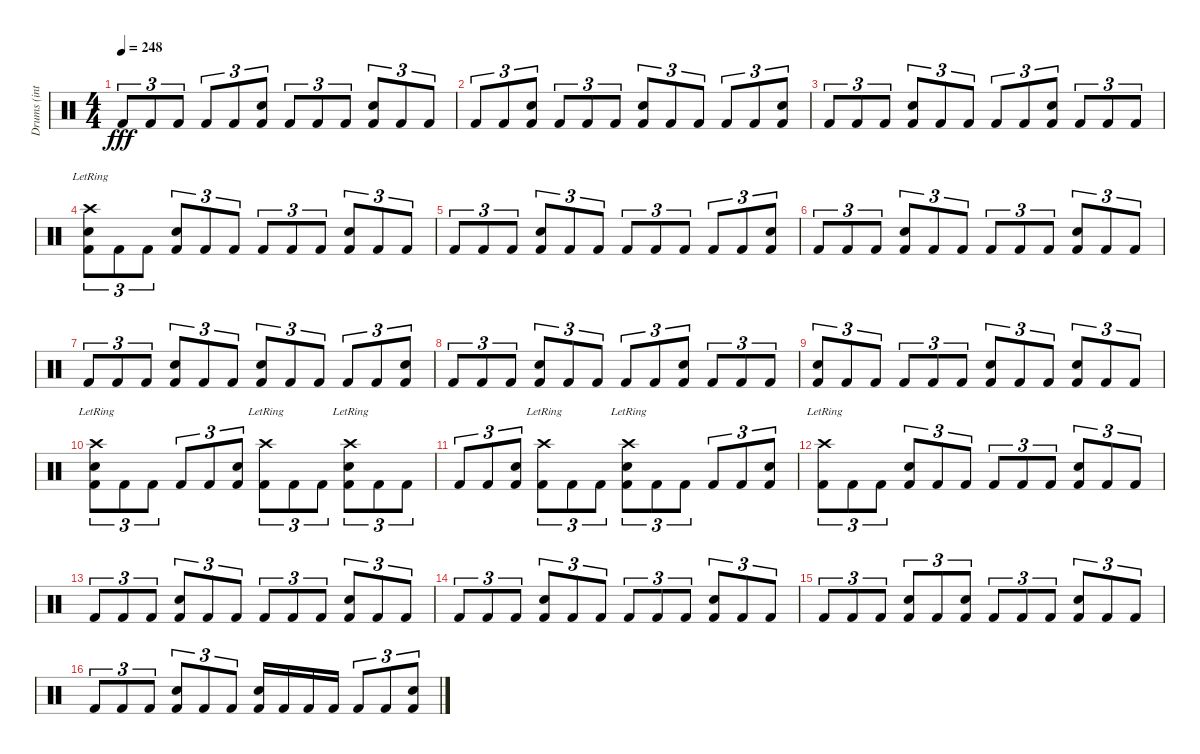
\track ("Drums (intro only)" "Drums (int") {instrument percussion}
\staff {score}
\articulation defaults
\ts (4 4)
\tempo 248
\clef neutral
\ks c "Kick (hit) 2".8{tu (3 2) dy fff} "Kick (hit) 2".8{tu (3 2)} "Kick (hit) 2".8{tu (3 2)} "Kick (hit) 2".8{tu (3 2)} "Kick (hit) 2".8{tu (3 2)}
("Snare (hit) 2" "Kick (hit) 2").8{tu (3 2)} "Kick (hit) 2".8{tu (3 2)} "Kick (hit) 2".8{tu (3 2)} "Kick (hit) 2".8{tu (3 2)} ("Snare (hit) 2" "Kick (hit) 2").8{tu (3 2)} "Kick (hit) 2".8{tu (3 2)} "Kick (hit) 2".8{tu (3 2)} |
"Kick (hit) 2".8{tu (3 2)} "Kick (hit) 2".8{tu (3 2)} ("Snare (hit) 2" "Kick (hit) 2").8{tu (3 2)} "Kick (hit) 2".8{tu (3 2)} "Kick (hit) 2".8{tu (3 2)} "Kick (hit) 2".8{tu (3 2)} ("Snare (hit) 2" "Kick (hit) 2").8{tu (3 2)} "Kick (hit) 2".8{tu (3 2)} "Kick (hit) 2".8{tu (3 2)} "Kick (hit) 2".8{tu (3 2)} "Kick (hit) 2".8{tu (3 2)} ("Snare (hit) 2" "Kick (hit) 2").8{tu (3 2)} |
"Kick (hit) 2".8{tu (3 2)} "Kick (hit) 2".8{tu (3 2)} "Kick (hit) 2".8{tu (3 2)} ("Snare (hit) 2" "Kick (hit) 2").8{tu (3 2)} "Kick (hit) 2".8{tu (3 2)} "Kick (hit) 2".8{tu (3 2)} "Kick (hit) 2".8{tu (3 2)} "Kick (hit) 2".8{tu (3 2)} ("Snare (hit) 2" "Kick (hit) 2").8{tu (3 2)} "Kick (hit) 2".8{tu (3 2)} "Kick (hit) 2".8{tu (3 2)} "Kick (hit) 2".8{tu (3 2)} |
("Crash high (hit)"{lr} "Snare (hit) 2" "Kick (hit) 2").8{tu (3 2)} "Kick (hit) 2".8{tu (3 2)} "Kick (hit) 2".8{tu (3 2)} ("Snare (hit) 2" "Kick (hit) 2").8{tu (3 2)} "Kick (hit) 2".8{tu (3 2)} "Kick (hit) 2".8{tu (3 2)} "Kick (hit) 2".8{tu (3 2)} "Kick (hit) 2".8{tu (3 2)} "Kick (hit) 2".8{tu (3 2)} ("Snare (hit) 2" "Kick (hit) 2").8{tu (3 2)} "Kick (hit) 2".8{tu (3 2)} "Kick (hit) 2".8{tu (3 2)} |
"Kick (hit) 2".8{tu (3 2)} "Kick (hit) 2".8{tu (3 2)} "Kick (hit) 2".8{tu (3 2)} ("Snare (hit) 2" "Kick (hit) 2").8{tu (3 2)} "Kick (hit) 2".8{tu (3 2)} "Kick (hit) 2".8{tu (3 2)} "Kick (hit) 2".8{tu (3 2)} "Kick (hit) 2".8{tu (3 2)} "Kick (hit) 2".8{tu (3 2)} "Kick (hit) 2".8{tu (3 2)} "Kick (hit) 2".8{tu (3 2)} ("Snare (hit) 2" "Kick (hit) 2").8{tu (3 2)} |
"Kick (hit) 2".8{tu (3 2)} "Kick (hit) 2".8{tu (3 2)} "Kick (hit) 2".8{tu (3 2)} ("Snare (hit) 2" "Kick (hit) 2").8{tu (3 2)} "Kick (hit) 2".8{tu (3 2)} "Kick (hit) 2".8{tu (3 2)} "Kick (hit) 2".8{tu (3 2)} "Kick (hit) 2".8{tu (3 2)} "Kick (hit) 2".8{tu (3 2)} ("Snare (hit) 2" "Kick (hit) 2").8{tu (3 2)} "Kick (hit) 2".8{tu (3 2)} "Kick (hit) 2".8{tu (3 2)} |
"Kick (hit) 2".8{tu (3 2)} "Kick (hit) 2".8{tu (3 2)} "Kick (hit) 2".8{tu (3 2)} ("Snare (hit) 2" "Kick (hit) 2").8{tu (3 2)} "Kick (hit) 2".8{tu (3 2)} "Kick (hit) 2".8{tu (3 2)} ("Snare (hit) 2" "Kick (hit) 2").8{tu (3 2)} "Kick (hit) 2".8{tu (3 2)} "Kick (hit) 2".8{tu (3 2)} "Kick (hit) 2".8{tu (3 2)} "Kick (hit) 2".8{tu (3 2)} ("Snare (hit) 2" "Kick (hit) 2").8{tu (3 2)} |
"Kick (hit) 2".8{tu (3 2)} "Kick (hit) 2".8{tu (3 2)} "Kick (hit) 2".8{tu (3 2)} ("Snare (hit) 2" "Kick (hit) 2").8{tu (3 2)} "Kick (hit) 2".8{tu (3 2)} "Kick (hit) 2".8{tu (3 2)} "Kick (hit) 2".8{tu (3 2)} "Kick (hit) 2".8{tu (3 2)} ("Snare (hit) 2" "Kick (hit) 2").8{tu (3 2)} "Kick (hit) 2".8{tu (3 2)} "Kick (hit) 2".8{tu (3 2)} "Kick (hit) 2".8{tu (3 2)} |
("Snare (hit) 2" "Kick (hit) 2").8{tu (3 2)} "Kick (hit) 2".8{tu (3 2)} "Kick (hit) 2".8{tu (3 2)} "Kick (hit) 2".8{tu (3 2)} "Kick (hit) 2".8{tu (3 2)} "Kick (hit) 2".8{tu (3 2)} ("Snare (hit) 2" "Kick (hit) 2").8{tu (3 2)} "Kick (hit) 2".8{tu (3 2)} "Kick (hit) 2".8{tu (3 2)} ("Snare (hit) 2" "Kick (hit) 2").8{tu (3 2)} "Kick (hit) 2".8{tu (3 2)} "Kick (hit) 2".8{tu (3 2)} |
("Crash high (hit)"{lr} "Snare (hit) 2" "Kick (hit) 2").8{tu (3 2)} "Kick (hit) 2".8{tu (3 2)} "Kick (hit) 2".8{tu (3 2)} "Kick (hit) 2".8{tu (3 2)} "Kick (hit) 2".8{tu (3 2)} ("Snare (hit) 2" "Kick (hit) 2").8{tu (3 2)} ("Crash high (hit)"{lr} "Kick (hit) 2").8{tu (3 2)} "Kick (hit) 2".8{tu (3 2)} "Kick (hit) 2".8{tu (3 2)} ("Crash high (hit)"{lr} "Snare (hit) 2" "Kick (hit) 2").8{tu (3 2)} "Kick (hit) 2".8{tu (3 2)} "Kick (hit) 2".8{tu (3 2)} |
"Kick (hit) 2".8{tu (3 2)} "Kick (hit) 2".8{tu (3 2)} ("Snare (hit) 2" "Kick (hit) 2").8{tu (3 2)} ("Crash high (hit)"{lr} "Kick (hit) 2").8{tu (3 2)} "Kick (hit) 2".8{tu (3 2)} "Kick (hit) 2".8{tu (3 2)} ("Crash high (hit)"{lr} "Snare (hit) 2" "Kick (hit) 2").8{tu (3 2)} "Kick (hit) 2".8{tu (3 2)} "Kick (hit) 2".8{tu (3 2)} "Kick (hit) 2".8{tu (3 2)} "Kick (hit) 2".8{tu (3 2)} ("Snare (hit) 2" "Kick (hit) 2").8{tu (3 2)} |
("Crash high (hit)"{lr} "Kick (hit) 2").8{tu (3 2)} "Kick (hit) 2".8{tu (3 2)} "Kick (hit) 2".8{tu (3 2)} ("Snare (hit) 2" "Kick (hit) 2").8{tu (3 2)} "Kick (hit) 2".8{tu (3 2)} "Kick (hit) 2".8{tu (3 2)} "Kick (hit) 2".8{tu (3 2)} "Kick (hit) 2".8{tu (3 2)} "Kick (hit) 2".8{tu (3 2)} ("Snare (hit) 2" "Kick (hit) 2").8{tu (3 2)} "Kick (hit) 2".8{tu (3 2)} "Kick (hit) 2".8{tu (3 2)} |
"Kick (hit) 2".8{tu (3 2)} "Kick (hit) 2".8{tu (3 2)} "Kick (hit) 2".8{tu (3 2)} ("Snare (hit) 2" "Kick (hit) 2").8{tu (3 2)} "Kick (hit) 2".8{tu (3 2)} "Kick (hit) 2".8{tu (3 2)} "Kick (hit) 2".8{tu (3 2)} "Kick (hit) 2".8{tu (3 2)} "Kick (hit) 2".8{tu (3 2)} ("Snare (hit) 2" "Kick (hit) 2").8{tu (3 2)} "Kick (hit) 2".8{tu (3 2)} "Kick (hit) 2".8{tu (3 2)} |
"Kick (hit) 2".8{tu (3 2)} "Kick (hit) 2".8{tu (3 2)} "Kick (hit) 2".8{tu (3 2)} ("Snare (hit) 2" "Kick (hit) 2").8{tu (3 2)} "Kick (hit) 2".8{tu (3 2)} "Kick (hit) 2".8{tu (3 2)} "Kick (hit) 2".8{tu (3 2)} "Kick (hit) 2".8{tu (3 2)} "Kick (hit) 2".8{tu (3 2)} ("Snare (hit) 2" "Kick (hit) 2").8{tu (3 2)} "Kick (hit) 2".8{tu (3 2)} "Kick (hit) 2".8{tu (3 2)} |
"Kick (hit) 2".8{tu (3 2)} "Kick (hit) 2".8{tu (3 2)} "Kick (hit) 2".8{tu (3 2)} ("Snare (hit) 2" "Kick (hit) 2").8{tu (3 2)} "Kick (hit) 2".8{tu (3 2)} ("Snare (hit) 2" "Kick (hit) 2").8{tu (3 2)} "Kick (hit) 2".8{tu (3 2)} "Kick (hit) 2".8{tu (3 2)} "Kick (hit) 2".8{tu (3 2)} ("Snare (hit) 2" "Kick (hit) 2").8{tu (3 2)} "Kick (hit) 2".8{tu (3 2)} "Kick (hit) 2".8{tu (3 2)} |
"Kick (hit) 2".8{tu (3 2)} "Kick (hit) 2".8{tu (3 2)} "Kick (hit) 2".8{tu (3 2)} ("Snare (hit) 2" "Kick (hit) 2").8{tu (3 2)} "Kick (hit) 2".8{tu (3 2)} "Kick (hit) 2".8{tu (3 2)} ("Snare (hit) 2" "Kick (hit) 2").16 "Kick (hit) 2".16 "Kick (hit) 2".16 "Kick (hit) 2".16 "Kick (hit) 2".8{tu (3 2)} "Kick (hit) 2".8{tu (3 2)} ("Snare (hit) 2" "Kick (hit) 2").8{tu (3 2)}
